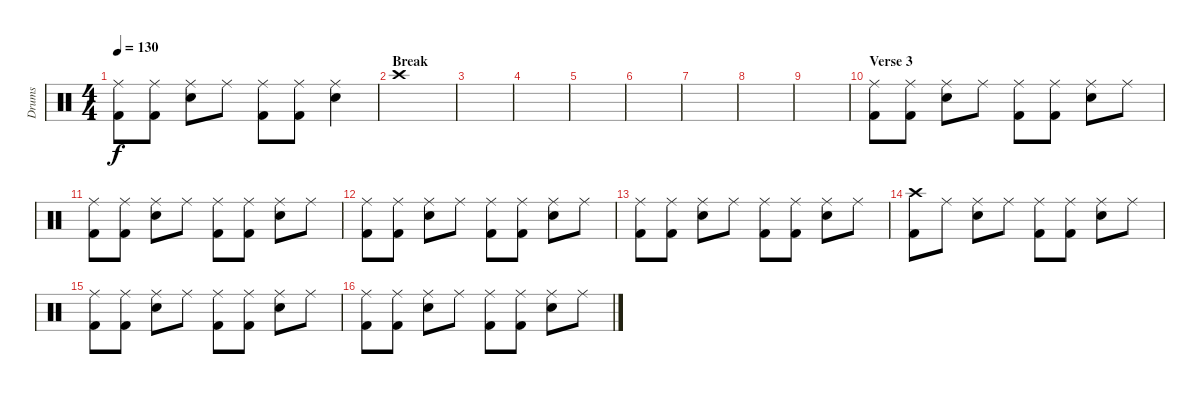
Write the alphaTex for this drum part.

\track ("Drums" "Drums") {instrument percussion}
\staff {score}
\articulation defaults
\ts (4 4)
\tempo 130
\clef neutral
\ks c
("Ride (middle)" "Kick (hit) 2").8{dy f} ("Ride (middle)" "Kick (hit) 2").8 ("Ride (middle)" "Electric Snare (hit)").8 "Ride (middle)".8 ("Ride (middle)" "Kick (hit) 2").8 ("Ride (middle)" "Kick (hit) 2").8 ("Ride (middle)" "Electric Snare (hit)").4 |
\section ("" "Break")
"Crash high (hit)".1 |
|
|
|
|
|
|
|
\section ("" "Verse 3")
("Ride (middle)" "Kick (hit) 2").8 ("Ride (middle)" "Kick (hit) 2").8 ("Ride (middle)" "Electric Snare (hit)").8 "Ride (middle)".8 ("Ride (middle)" "Kick (hit) 2").8 ("Ride (middle)" "Kick (hit) 2").8 ("Ride (middle)" "Electric Snare (hit)").8 "Ride (middle)".8 |
("Ride (middle)" "Kick (hit) 2").8 ("Ride (middle)" "Kick (hit) 2").8 ("Ride (middle)" "Electric Snare (hit)").8 "Ride (middle)".8 ("Ride (middle)" "Kick (hit) 2").8 ("Ride (middle)" "Kick (hit) 2").8 ("Ride (middle)" "Electric Snare (hit)").8 "Ride (middle)".8 |
("Ride (middle)" "Kick (hit) 2").8 ("Ride (middle)" "Kick (hit) 2").8 ("Ride (middle)" "Electric Snare (hit)").8 "Ride (middle)".8 ("Ride (middle)" "Kick (hit) 2").8 ("Ride (middle)" "Kick (hit) 2").8 ("Ride (middle)" "Electric Snare (hit)").8 "Ride (middle)".8 |
("Ride (middle)" "Kick (hit) 2").8 ("Ride (middle)" "Kick (hit) 2").8 ("Ride (middle)" "Electric Snare (hit)").8 "Ride (middle)".8 ("Ride (middle)" "Kick (hit) 2").8 ("Ride (middle)" "Kick (hit) 2").8 ("Ride (middle)" "Electric Snare (hit)").8 "Ride (middle)".8 |
("Crash high (hit)" "Kick (hit) 2").8 "Ride (middle)".8 ("Ride (middle)" "Electric Snare (hit)").8 "Ride (middle)".8 ("Ride (middle)" "Kick (hit) 2").8 ("Ride (middle)" "Kick (hit) 2").8 ("Ride (middle)" "Electric Snare (hit)").8 "Ride (middle)".8 |
("Ride (middle)" "Kick (hit) 2").8 ("Ride (middle)" "Kick (hit) 2").8 ("Ride (middle)" "Electric Snare (hit)").8 "Ride (middle)".8 ("Ride (middle)" "Kick (hit) 2").8 ("Ride (middle)" "Kick (hit) 2").8 ("Ride (middle)" "Electric Snare (hit)").8 "Ride (middle)".8 |
("Ride (middle)" "Kick (hit) 2").8 ("Ride (middle)" "Kick (hit) 2").8 ("Ride (middle)" "Electric Snare (hit)").8 "Ride (middle)".8 ("Ride (middle)" "Kick (hit) 2").8 ("Ride (middle)" "Kick (hit) 2").8 ("Ride (middle)" "Electric Snare (hit)").8 "Ride (middle)".8
